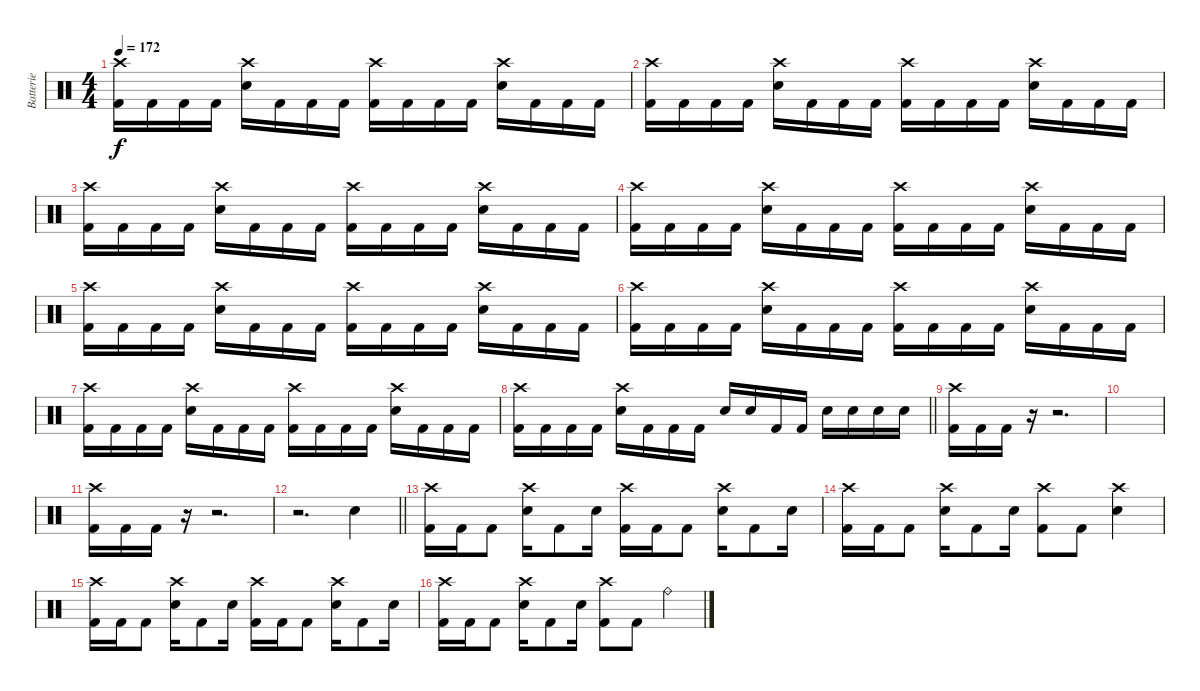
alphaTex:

\track ("Batterie" "Batterie") {instrument percussion}
\staff {score}
\articulation defaults
\ts (4 4)
\tempo 172
\clef neutral
\ks c
("Crash high (hit)" "Kick (hit) 2").16{dy f} "Kick (hit) 2".16 "Kick (hit) 2".16 "Kick (hit) 2".16 ("Crash high (hit)" "Electric Snare (hit)").16 "Kick (hit) 2".16 "Kick (hit) 2".16 "Kick (hit) 2".16 ("Crash high (hit)" "Kick (hit) 2").16 "Kick (hit) 2".16 "Kick (hit) 2".16 "Kick (hit) 2".16 ("Crash high (hit)" "Electric Snare (hit)").16 "Kick (hit) 2".16 "Kick (hit) 2".16 "Kick (hit) 2".16 |
("Crash high (hit)" "Kick (hit) 2").16 "Kick (hit) 2".16 "Kick (hit) 2".16 "Kick (hit) 2".16 ("Crash high (hit)" "Electric Snare (hit)").16 "Kick (hit) 2".16 "Kick (hit) 2".16 "Kick (hit) 2".16 ("Crash high (hit)" "Kick (hit) 2").16 "Kick (hit) 2".16 "Kick (hit) 2".16 "Kick (hit) 2".16 ("Crash high (hit)" "Electric Snare (hit)").16 "Kick (hit) 2".16 "Kick (hit) 2".16 "Kick (hit) 2".16 |
("Crash high (hit)" "Kick (hit) 2").16 "Kick (hit) 2".16 "Kick (hit) 2".16 "Kick (hit) 2".16 ("Crash high (hit)" "Electric Snare (hit)").16 "Kick (hit) 2".16 "Kick (hit) 2".16 "Kick (hit) 2".16 ("Crash high (hit)" "Kick (hit) 2").16 "Kick (hit) 2".16 "Kick (hit) 2".16 "Kick (hit) 2".16 ("Crash high (hit)" "Electric Snare (hit)").16 "Kick (hit) 2".16 "Kick (hit) 2".16 "Kick (hit) 2".16 |
("Crash high (hit)" "Kick (hit) 2").16 "Kick (hit) 2".16 "Kick (hit) 2".16 "Kick (hit) 2".16 ("Crash high (hit)" "Electric Snare (hit)").16 "Kick (hit) 2".16 "Kick (hit) 2".16 "Kick (hit) 2".16 ("Crash high (hit)" "Kick (hit) 2").16 "Kick (hit) 2".16 "Kick (hit) 2".16 "Kick (hit) 2".16 ("Crash high (hit)" "Electric Snare (hit)").16 "Kick (hit) 2".16 "Kick (hit) 2".16 "Kick (hit) 2".16 |
("Crash high (hit)" "Kick (hit) 2").16 "Kick (hit) 2".16 "Kick (hit) 2".16 "Kick (hit) 2".16 ("Crash high (hit)" "Electric Snare (hit)").16 "Kick (hit) 2".16 "Kick (hit) 2".16 "Kick (hit) 2".16 ("Crash high (hit)" "Kick (hit) 2").16 "Kick (hit) 2".16 "Kick (hit) 2".16 "Kick (hit) 2".16 ("Crash high (hit)" "Electric Snare (hit)").16 "Kick (hit) 2".16 "Kick (hit) 2".16 "Kick (hit) 2".16 |
("Crash high (hit)" "Kick (hit) 2").16 "Kick (hit) 2".16 "Kick (hit) 2".16 "Kick (hit) 2".16 ("Crash high (hit)" "Electric Snare (hit)").16 "Kick (hit) 2".16 "Kick (hit) 2".16 "Kick (hit) 2".16 ("Crash high (hit)" "Kick (hit) 2").16 "Kick (hit) 2".16 "Kick (hit) 2".16 "Kick (hit) 2".16 ("Crash high (hit)" "Electric Snare (hit)").16 "Kick (hit) 2".16 "Kick (hit) 2".16 "Kick (hit) 2".16 |
("Crash high (hit)" "Kick (hit) 2").16 "Kick (hit) 2".16 "Kick (hit) 2".16 "Kick (hit) 2".16 ("Crash high (hit)" "Electric Snare (hit)").16 "Kick (hit) 2".16 "Kick (hit) 2".16 "Kick (hit) 2".16 ("Crash high (hit)" "Kick (hit) 2").16 "Kick (hit) 2".16 "Kick (hit) 2".16 "Kick (hit) 2".16 ("Crash high (hit)" "Electric Snare (hit)").16 "Kick (hit) 2".16 "Kick (hit) 2".16 "Kick (hit) 2".16 |
\barLineRight lightlight
("Crash high (hit)" "Kick (hit) 2").16 "Kick (hit) 2".16 "Kick (hit) 2".16 "Kick (hit) 2".16 ("Crash high (hit)" "Electric Snare (hit)").16 "Kick (hit) 2".16 "Kick (hit) 2".16 "Kick (hit) 2".16 "Electric Snare (hit)".16 "Electric Snare (hit)".16 "Kick (hit) 2".16 "Kick (hit) 2".16 "Electric Snare (hit)".16 "Electric Snare (hit)".16 "Electric Snare (hit)".16 "Electric Snare (hit)".16 |
("Crash high (hit)" "Kick (hit) 2").16 "Kick (hit) 2".16 "Kick (hit) 2".16 r.16 r.2{d} |
|
("Crash high (hit)" "Kick (hit) 2").16 "Kick (hit) 2".16 "Kick (hit) 2".16 r.16 r.2{d} |
\barLineRight lightlight
r.2{d} "Electric Snare (hit)".4 |
("Crash high (hit)" "Kick (hit) 2").16 "Kick (hit) 2".16 "Kick (hit) 2".8 ("Crash high (hit)" "Electric Snare (hit)").16 "Kick (hit) 2".8 "Electric Snare (hit)".16 ("Crash high (hit)" "Kick (hit) 2").16 "Kick (hit) 2".16 "Kick (hit) 2".8 ("Crash high (hit)" "Electric Snare (hit)").16 "Kick (hit) 2".8 "Electric Snare (hit)".16 |
("Crash high (hit)" "Kick (hit) 2").16 "Kick (hit) 2".16 "Kick (hit) 2".8 ("Crash high (hit)" "Electric Snare (hit)").16 "Kick (hit) 2".8 "Electric Snare (hit)".16 ("Crash high (hit)" "Kick (hit) 2").8 "Kick (hit) 2".8 ("Crash high (hit)" "Electric Snare (hit)").4 |
("Crash high (hit)" "Kick (hit) 2").16 "Kick (hit) 2".16 "Kick (hit) 2".8 ("Crash high (hit)" "Electric Snare (hit)").16 "Kick (hit) 2".8 "Electric Snare (hit)".16 ("Crash high (hit)" "Kick (hit) 2").16 "Kick (hit) 2".16 "Kick (hit) 2".8 ("Crash high (hit)" "Electric Snare (hit)").16 "Kick (hit) 2".8 "Electric Snare (hit)".16 |
("Crash high (hit)" "Kick (hit) 2").16 "Kick (hit) 2".16 "Kick (hit) 2".8 ("Crash high (hit)" "Electric Snare (hit)").16 "Kick (hit) 2".8 "Electric Snare (hit)".16 ("Crash high (hit)" "Kick (hit) 2").8 "Kick (hit) 2".8 "Ride (bell)".4
